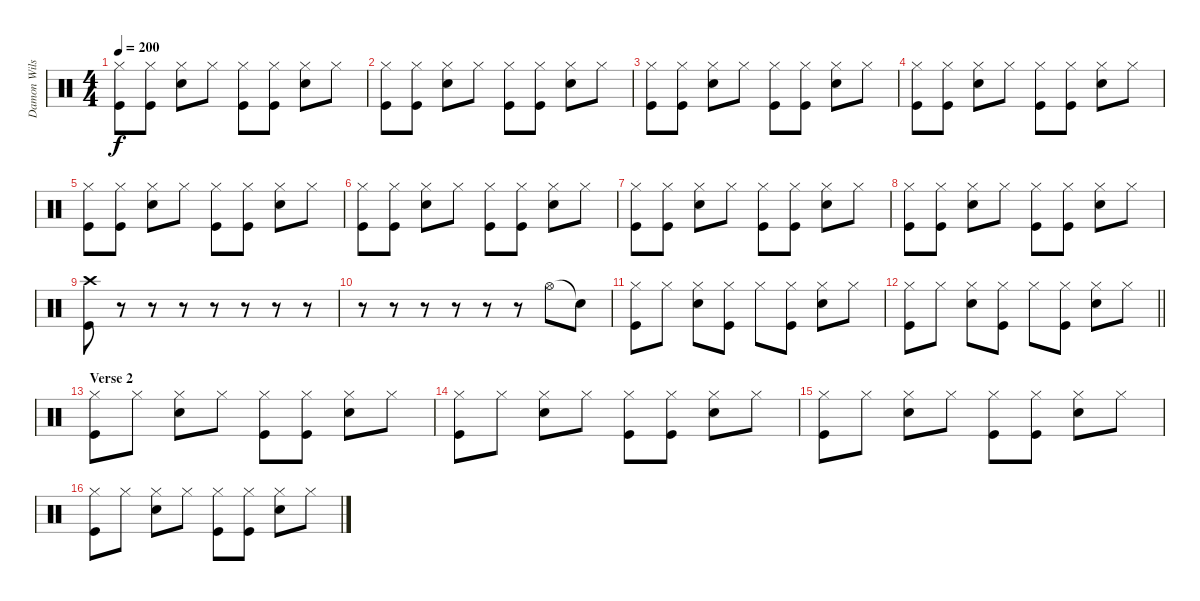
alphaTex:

\track ("Damon Wilson" "Damon Wils") {instrument percussion}
\staff {score}
\articulation defaults
\ts (4 4)
\tempo 200
\clef neutral
\ks c
("Hi-Hat (closed)" "Kick (hit)").8{dy f} ("Hi-Hat (closed)" "Kick (hit)").8 ("Hi-Hat (closed)" "Snare (hit) 2").8 "Hi-Hat (closed)".8 ("Hi-Hat (closed)" "Kick (hit)").8 ("Hi-Hat (closed)" "Kick (hit)").8 ("Hi-Hat (closed)" "Snare (hit) 2").8 "Hi-Hat (closed)".8 |
("Hi-Hat (closed)" "Kick (hit)").8 ("Hi-Hat (closed)" "Kick (hit)").8 ("Hi-Hat (closed)" "Snare (hit) 2").8 "Hi-Hat (closed)".8 ("Hi-Hat (closed)" "Kick (hit)").8 ("Hi-Hat (closed)" "Kick (hit)").8 ("Hi-Hat (closed)" "Snare (hit) 2").8 "Hi-Hat (closed)".8 |
("Hi-Hat (closed)" "Kick (hit)").8 ("Hi-Hat (closed)" "Kick (hit)").8 ("Hi-Hat (closed)" "Snare (hit) 2").8 "Hi-Hat (closed)".8 ("Hi-Hat (closed)" "Kick (hit)").8 ("Hi-Hat (closed)" "Kick (hit)").8 ("Hi-Hat (closed)" "Snare (hit) 2").8 "Hi-Hat (closed)".8 |
("Hi-Hat (closed)" "Kick (hit)").8 ("Hi-Hat (closed)" "Kick (hit)").8 ("Hi-Hat (closed)" "Snare (hit) 2").8 "Hi-Hat (closed)".8 ("Hi-Hat (closed)" "Kick (hit)").8 ("Hi-Hat (closed)" "Kick (hit)").8 ("Hi-Hat (closed)" "Snare (hit) 2").8 "Hi-Hat (closed)".8 |
("Hi-Hat (closed)" "Kick (hit)").8 ("Hi-Hat (closed)" "Kick (hit)").8 ("Hi-Hat (closed)" "Snare (hit) 2").8 "Hi-Hat (closed)".8 ("Hi-Hat (closed)" "Kick (hit)").8 ("Hi-Hat (closed)" "Kick (hit)").8 ("Hi-Hat (closed)" "Snare (hit) 2").8 "Hi-Hat (closed)".8 |
("Hi-Hat (closed)" "Kick (hit)").8 ("Hi-Hat (closed)" "Kick (hit)").8 ("Hi-Hat (closed)" "Snare (hit) 2").8 "Hi-Hat (closed)".8 ("Hi-Hat (closed)" "Kick (hit)").8 ("Hi-Hat (closed)" "Kick (hit)").8 ("Hi-Hat (closed)" "Snare (hit) 2").8 "Hi-Hat (closed)".8 |
("Hi-Hat (closed)" "Kick (hit)").8 ("Hi-Hat (closed)" "Kick (hit)").8 ("Hi-Hat (closed)" "Snare (hit) 2").8 "Hi-Hat (closed)".8 ("Hi-Hat (closed)" "Kick (hit)").8 ("Hi-Hat (closed)" "Kick (hit)").8 ("Hi-Hat (closed)" "Snare (hit) 2").8 "Hi-Hat (closed)".8 |
("Hi-Hat (closed)" "Kick (hit)").8 ("Hi-Hat (closed)" "Kick (hit)").8 ("Hi-Hat (closed)" "Snare (hit) 2").8 "Hi-Hat (closed)".8 ("Hi-Hat (closed)" "Kick (hit)").8 ("Hi-Hat (closed)" "Kick (hit)").8 ("Hi-Hat (closed)" "Snare (hit) 2").8 "Hi-Hat (closed)".8 |
("Crash high (hit)" "Kick (hit)").8 r.8 r.8 r.8 r.8 r.8 r.8 r.8 |
r.8 r.8 r.8 r.8 r.8 r.8 "Hi-Hat (open)".8 "Snare (hit)"{t}.8 |
("Hi-Hat (closed)" "Kick (hit)").8 "Hi-Hat (closed)".8 ("Hi-Hat (closed)" "Snare (hit) 2").8 ("Hi-Hat (closed)" "Kick (hit)").8 "Hi-Hat (closed)".8 ("Hi-Hat (closed)" "Kick (hit)").8 ("Hi-Hat (closed)" "Snare (hit) 2").8 "Hi-Hat (closed)".8 |
\barLineRight lightlight
("Hi-Hat (closed)" "Kick (hit)").8 "Hi-Hat (closed)".8 ("Hi-Hat (closed)" "Snare (hit) 2").8 ("Hi-Hat (closed)" "Kick (hit)").8 "Hi-Hat (closed)".8 ("Hi-Hat (closed)" "Kick (hit)").8 ("Hi-Hat (closed)" "Snare (hit) 2").8 "Hi-Hat (closed)".8 |
\section ("" "Verse 2")
("Hi-Hat (closed)" "Kick (hit)").8 "Hi-Hat (closed)".8 ("Hi-Hat (closed)" "Snare (hit) 2").8 "Hi-Hat (closed)".8 ("Hi-Hat (closed)" "Kick (hit)").8 ("Hi-Hat (closed)" "Kick (hit)").8 ("Hi-Hat (closed)" "Snare (hit) 2").8 "Hi-Hat (closed)".8 |
("Hi-Hat (closed)" "Kick (hit)").8 "Hi-Hat (closed)".8 ("Hi-Hat (closed)" "Snare (hit) 2").8 "Hi-Hat (closed)".8 ("Hi-Hat (closed)" "Kick (hit)").8 ("Hi-Hat (closed)" "Kick (hit)").8 ("Hi-Hat (closed)" "Snare (hit) 2").8 "Hi-Hat (closed)".8 |
("Hi-Hat (closed)" "Kick (hit)").8 "Hi-Hat (closed)".8 ("Hi-Hat (closed)" "Snare (hit) 2").8 "Hi-Hat (closed)".8 ("Hi-Hat (closed)" "Kick (hit)").8 ("Hi-Hat (closed)" "Kick (hit)").8 ("Hi-Hat (closed)" "Snare (hit) 2").8 "Hi-Hat (closed)".8 |
("Hi-Hat (closed)" "Kick (hit)").8 "Hi-Hat (closed)".8 ("Hi-Hat (closed)" "Snare (hit) 2").8 "Hi-Hat (closed)".8 ("Hi-Hat (closed)" "Kick (hit)").8 ("Hi-Hat (closed)" "Kick (hit)").8 ("Hi-Hat (closed)" "Snare (hit) 2").8 "Hi-Hat (closed)".8
